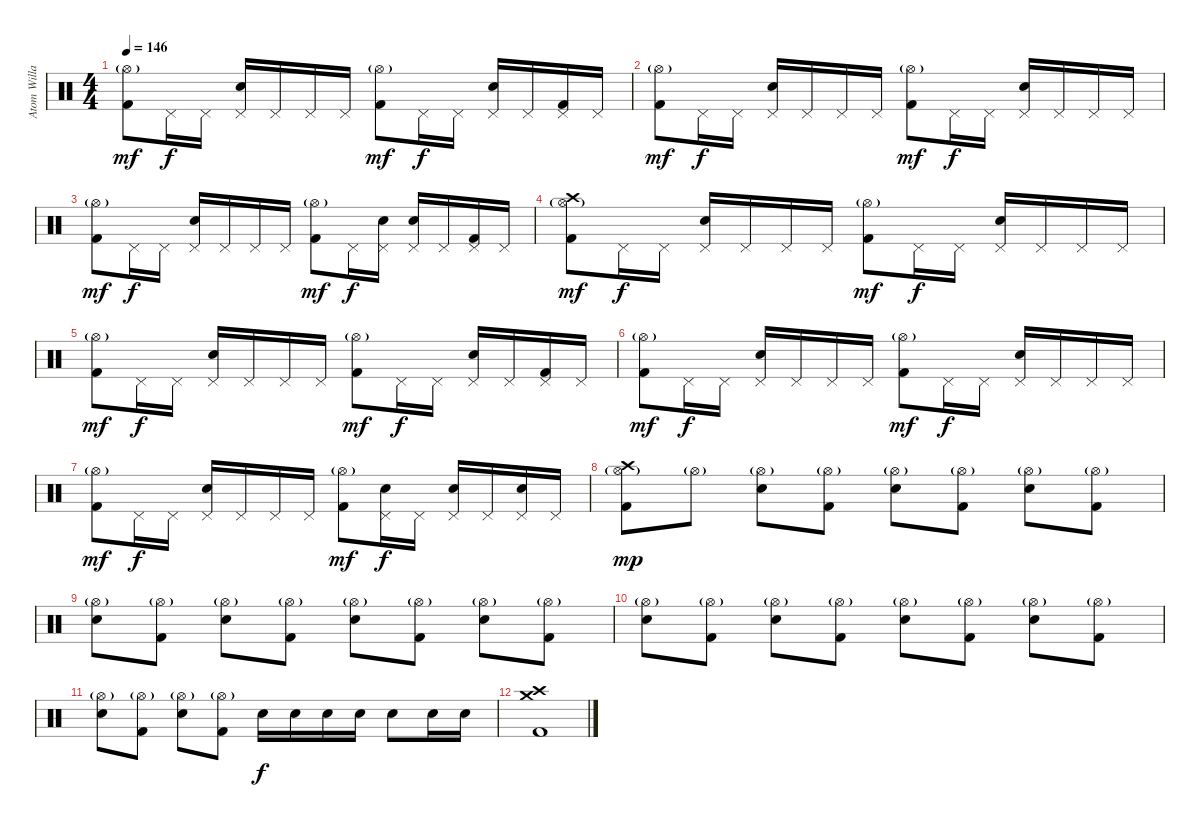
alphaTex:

\track ("Atom Willard" "Atom Willa") {instrument percussion}
\staff {score}
\articulation defaults
\ts (4 4)
\tempo 146
\clef neutral
\ks c
("Hi-Hat (open)"{g} "Kick (hit) 2").8{dy mf} "Pedal Hi-Hat (hit)".16{dy f} "Pedal Hi-Hat (hit)".16 ("Pedal Hi-Hat (hit)" "Electric Snare (hit)").16 "Pedal Hi-Hat (hit)".16 "Pedal Hi-Hat (hit)".16 "Pedal Hi-Hat (hit)".16 ("Hi-Hat (open)"{g} "Kick (hit) 2").8{dy mf} "Pedal Hi-Hat (hit)".16{dy f} "Pedal Hi-Hat (hit)".16 ("Pedal Hi-Hat (hit)" "Electric Snare (hit)").16 "Pedal Hi-Hat (hit)".16 ("Pedal Hi-Hat (hit)" "Kick (hit) 2").16 "Pedal Hi-Hat (hit)".16 |
("Hi-Hat (open)"{g} "Kick (hit) 2").8{dy mf} "Pedal Hi-Hat (hit)".16{dy f} "Pedal Hi-Hat (hit)".16 ("Pedal Hi-Hat (hit)" "Electric Snare (hit)").16 "Pedal Hi-Hat (hit)".16 "Pedal Hi-Hat (hit)".16 "Pedal Hi-Hat (hit)".16 ("Hi-Hat (open)"{g} "Kick (hit) 2").8{dy mf} "Pedal Hi-Hat (hit)".16{dy f} "Pedal Hi-Hat (hit)".16 ("Pedal Hi-Hat (hit)" "Electric Snare (hit)").16 "Pedal Hi-Hat (hit)".16 "Pedal Hi-Hat (hit)".16 "Pedal Hi-Hat (hit)".16 |
("Hi-Hat (open)"{g} "Kick (hit) 2").8{dy mf} "Pedal Hi-Hat (hit)".16{dy f} "Pedal Hi-Hat (hit)".16 ("Pedal Hi-Hat (hit)" "Electric Snare (hit)").16 "Pedal Hi-Hat (hit)".16 "Pedal Hi-Hat (hit)".16 "Pedal Hi-Hat (hit)".16 ("Hi-Hat (open)"{g} "Kick (hit) 2").8{dy mf} "Pedal Hi-Hat (hit)".16{dy f} ("Pedal Hi-Hat (hit)" "Electric Snare (hit)").16 ("Pedal Hi-Hat (hit)" "Electric Snare (hit)").16 "Pedal Hi-Hat (hit)".16 ("Pedal Hi-Hat (hit)" "Kick (hit) 2").16 "Pedal Hi-Hat (hit)".16 |
("Crash high (hit)" "Hi-Hat (open)"{g} "Kick (hit) 2").8{dy mf} "Pedal Hi-Hat (hit)".16{dy f} "Pedal Hi-Hat (hit)".16 ("Pedal Hi-Hat (hit)" "Electric Snare (hit)").16 "Pedal Hi-Hat (hit)".16 "Pedal Hi-Hat (hit)".16 "Pedal Hi-Hat (hit)".16 ("Hi-Hat (open)"{g} "Kick (hit) 2").8{dy mf} "Pedal Hi-Hat (hit)".16{dy f} "Pedal Hi-Hat (hit)".16 ("Pedal Hi-Hat (hit)" "Electric Snare (hit)").16 "Pedal Hi-Hat (hit)".16 "Pedal Hi-Hat (hit)".16 "Pedal Hi-Hat (hit)".16 |
("Hi-Hat (open)"{g} "Kick (hit) 2").8{dy mf} "Pedal Hi-Hat (hit)".16{dy f} "Pedal Hi-Hat (hit)".16 ("Pedal Hi-Hat (hit)" "Electric Snare (hit)").16 "Pedal Hi-Hat (hit)".16 "Pedal Hi-Hat (hit)".16 "Pedal Hi-Hat (hit)".16 ("Hi-Hat (open)"{g} "Kick (hit) 2").8{dy mf} "Pedal Hi-Hat (hit)".16{dy f} "Pedal Hi-Hat (hit)".16 ("Pedal Hi-Hat (hit)" "Electric Snare (hit)").16 "Pedal Hi-Hat (hit)".16 ("Pedal Hi-Hat (hit)" "Kick (hit) 2").16 "Pedal Hi-Hat (hit)".16 |
("Hi-Hat (open)"{g} "Kick (hit) 2").8{dy mf} "Pedal Hi-Hat (hit)".16{dy f} "Pedal Hi-Hat (hit)".16 ("Pedal Hi-Hat (hit)" "Electric Snare (hit)").16 "Pedal Hi-Hat (hit)".16 "Pedal Hi-Hat (hit)".16 "Pedal Hi-Hat (hit)".16 ("Hi-Hat (open)"{g} "Kick (hit) 2").8{dy mf} "Pedal Hi-Hat (hit)".16{dy f} "Pedal Hi-Hat (hit)".16 ("Pedal Hi-Hat (hit)" "Electric Snare (hit)").16 "Pedal Hi-Hat (hit)".16 "Pedal Hi-Hat (hit)".16 "Pedal Hi-Hat (hit)".16 |
("Hi-Hat (open)"{g} "Kick (hit) 2").8{dy mf} "Pedal Hi-Hat (hit)".16{dy f} "Pedal Hi-Hat (hit)".16 ("Pedal Hi-Hat (hit)" "Electric Snare (hit)").16 "Pedal Hi-Hat (hit)".16 "Pedal Hi-Hat (hit)".16 "Pedal Hi-Hat (hit)".16 ("Hi-Hat (open)"{g} "Kick (hit) 2").8{dy mf} ("Pedal Hi-Hat (hit)" "Electric Snare (hit)").16{dy f} "Pedal Hi-Hat (hit)".16 ("Pedal Hi-Hat (hit)" "Electric Snare (hit)").16 "Pedal Hi-Hat (hit)".16 ("Pedal Hi-Hat (hit)" "Electric Snare (hit)").16 "Pedal Hi-Hat (hit)".16 |
("Crash high (hit)" "Hi-Hat (open)"{g} "Kick (hit) 2").8{dy mp} "Hi-Hat (open)"{g}.8 ("Hi-Hat (open)"{g} "Electric Snare (hit)").8 ("Hi-Hat (open)"{g} "Kick (hit) 2").8 ("Hi-Hat (open)"{g} "Electric Snare (hit)").8 ("Hi-Hat (open)"{g} "Kick (hit) 2").8 ("Hi-Hat (open)"{g} "Electric Snare (hit)").8 ("Hi-Hat (open)"{g} "Kick (hit) 2").8 |
("Hi-Hat (open)"{g} "Electric Snare (hit)").8 ("Hi-Hat (open)"{g} "Kick (hit) 2").8 ("Hi-Hat (open)"{g} "Electric Snare (hit)").8 ("Hi-Hat (open)"{g} "Kick (hit) 2").8 ("Hi-Hat (open)"{g} "Electric Snare (hit)").8 ("Hi-Hat (open)"{g} "Kick (hit) 2").8 ("Hi-Hat (open)"{g} "Electric Snare (hit)").8 ("Hi-Hat (open)"{g} "Kick (hit) 2").8 |
("Hi-Hat (open)"{g} "Electric Snare (hit)").8 ("Hi-Hat (open)"{g} "Kick (hit) 2").8 ("Hi-Hat (open)"{g} "Electric Snare (hit)").8 ("Hi-Hat (open)"{g} "Kick (hit) 2").8 ("Hi-Hat (open)"{g} "Electric Snare (hit)").8 ("Hi-Hat (open)"{g} "Kick (hit) 2").8 ("Hi-Hat (open)"{g} "Electric Snare (hit)").8 ("Hi-Hat (open)"{g} "Kick (hit) 2").8 |
("Hi-Hat (open)"{g} "Electric Snare (hit)").8 ("Hi-Hat (open)"{g} "Kick (hit) 2").8 ("Hi-Hat (open)"{g} "Electric Snare (hit)").8 ("Hi-Hat (open)"{g} "Kick (hit) 2").8 "Electric Snare (hit)".16{dy f} "Electric Snare (hit)".16 "Electric Snare (hit)".16 "Electric Snare (hit)".16 "Electric Snare (hit)".8 "Electric Snare (hit)".16 "Electric Snare (hit)".16 |
("Crash high (hit)" "Crash medium (hit)" "Kick (hit) 2").1
